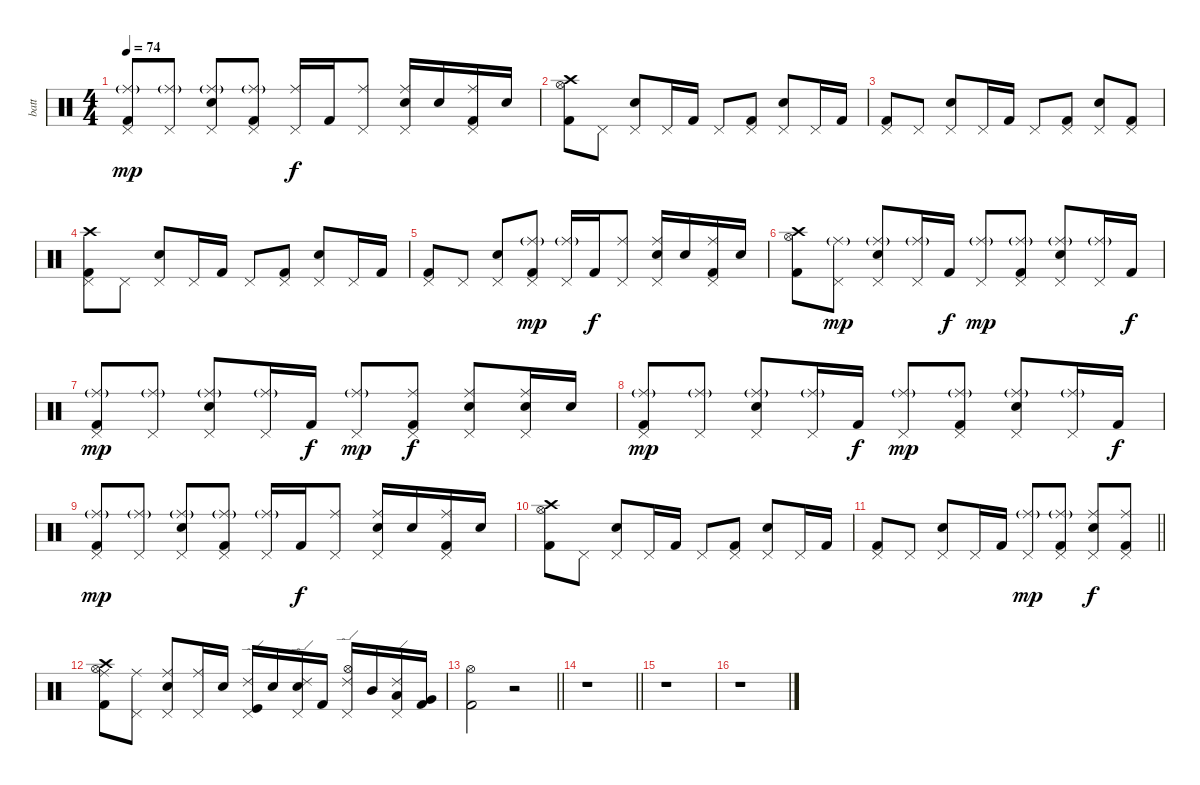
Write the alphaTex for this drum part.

\track ("batt" "batt") {instrument percussion}
\staff {score}
\articulation defaults
\ts (4 4)
\tempo 74
\clef neutral
\ks c
("Pedal Hi-Hat (hit)" "Ride (middle)"{g} "Kick (hit) 2").8{dy mp} ("Pedal Hi-Hat (hit)" "Ride (middle)"{g}).8 ("Pedal Hi-Hat (hit)" "Ride (middle)"{g} "Electric Snare (hit)").8 ("Pedal Hi-Hat (hit)" "Ride (middle)"{g} "Kick (hit) 2").8 ("Pedal Hi-Hat (hit)" "Ride (middle)").16{dy f} "Kick (hit) 2".16 ("Pedal Hi-Hat (hit)" "Ride (middle)").8 ("Pedal Hi-Hat (hit)" "Ride (middle)" "Electric Snare (hit)").16 "Electric Snare (hit)".16 ("Pedal Hi-Hat (hit)" "Ride (middle)" "Kick (hit) 2").16 "Electric Snare (hit)".16 |
("Crash high (hit)" "Hi-Hat (open)" "Kick (hit) 2").8 "Pedal Hi-Hat (hit)".8 ("Pedal Hi-Hat (hit)" "Electric Snare (hit)").8 "Pedal Hi-Hat (hit)".16 "Kick (hit) 2".16 "Pedal Hi-Hat (hit)".8 ("Pedal Hi-Hat (hit)" "Kick (hit) 2").8 ("Pedal Hi-Hat (hit)" "Electric Snare (hit)").8 "Pedal Hi-Hat (hit)".16 "Kick (hit) 2".16 |
("Pedal Hi-Hat (hit)" "Kick (hit) 2").8 "Pedal Hi-Hat (hit)".8 ("Pedal Hi-Hat (hit)" "Electric Snare (hit)").8 "Pedal Hi-Hat (hit)".16 "Kick (hit) 2".16 "Pedal Hi-Hat (hit)".8 ("Pedal Hi-Hat (hit)" "Kick (hit) 2").8 ("Pedal Hi-Hat (hit)" "Electric Snare (hit)").8 ("Pedal Hi-Hat (hit)" "Kick (hit) 2").8 |
("Pedal Hi-Hat (hit)" "Crash high (hit)" "Kick (hit) 2").8 "Pedal Hi-Hat (hit)".8 ("Pedal Hi-Hat (hit)" "Electric Snare (hit)").8 "Pedal Hi-Hat (hit)".16 "Kick (hit) 2".16 "Pedal Hi-Hat (hit)".8 ("Pedal Hi-Hat (hit)" "Kick (hit) 2").8 ("Pedal Hi-Hat (hit)" "Electric Snare (hit)").8 "Pedal Hi-Hat (hit)".16 "Kick (hit) 2".16 |
("Pedal Hi-Hat (hit)" "Kick (hit) 2").8 "Pedal Hi-Hat (hit)".8 ("Pedal Hi-Hat (hit)" "Electric Snare (hit)").8 ("Pedal Hi-Hat (hit)" "Ride (middle)"{g} "Kick (hit) 2").8{dy mp} ("Pedal Hi-Hat (hit)" "Ride (middle)"{g}).16 "Kick (hit) 2".16{dy f} ("Pedal Hi-Hat (hit)" "Ride (middle)").8 ("Pedal Hi-Hat (hit)" "Ride (middle)" "Electric Snare (hit)").16 "Electric Snare (hit)".16 ("Pedal Hi-Hat (hit)" "Ride (middle)" "Kick (hit) 2").16 "Electric Snare (hit)".16 |
("Crash high (hit)" "Hi-Hat (open)" "Kick (hit) 2").8 ("Pedal Hi-Hat (hit)" "Ride (middle)"{g}).8{dy mp} ("Pedal Hi-Hat (hit)" "Ride (middle)"{g} "Electric Snare (hit)").8 ("Pedal Hi-Hat (hit)" "Ride (middle)"{g}).16 "Kick (hit) 2".16{dy f} ("Pedal Hi-Hat (hit)" "Ride (middle)"{g}).8{dy mp} ("Pedal Hi-Hat (hit)" "Ride (middle)"{g} "Kick (hit) 2").8 ("Pedal Hi-Hat (hit)" "Ride (middle)"{g} "Electric Snare (hit)").8 ("Pedal Hi-Hat (hit)" "Ride (middle)"{g}).16 "Kick (hit) 2".16{dy f} |
("Pedal Hi-Hat (hit)" "Ride (middle)"{g} "Kick (hit) 2").8{dy mp} ("Pedal Hi-Hat (hit)" "Ride (middle)"{g}).8 ("Pedal Hi-Hat (hit)" "Ride (middle)"{g} "Electric Snare (hit)").8 ("Pedal Hi-Hat (hit)" "Ride (middle)"{g}).16 "Kick (hit) 2".16{dy f} ("Pedal Hi-Hat (hit)" "Ride (middle)"{g}).8{dy mp} ("Pedal Hi-Hat (hit)" "Ride (middle)" "Kick (hit) 2").8{dy f} ("Pedal Hi-Hat (hit)" "Ride (middle)" "Electric Snare (hit)").8 ("Pedal Hi-Hat (hit)" "Ride (middle)" "Electric Snare (hit)").16 "Electric Snare (hit)".16 |
("Pedal Hi-Hat (hit)" "Ride (middle)"{g} "Kick (hit) 2").8{dy mp} ("Pedal Hi-Hat (hit)" "Ride (middle)"{g}).8 ("Pedal Hi-Hat (hit)" "Ride (middle)"{g} "Electric Snare (hit)").8 ("Pedal Hi-Hat (hit)" "Ride (middle)"{g}).16 "Kick (hit) 2".16{dy f} ("Pedal Hi-Hat (hit)" "Ride (middle)"{g}).8{dy mp} ("Pedal Hi-Hat (hit)" "Ride (middle)"{g} "Kick (hit) 2").8 ("Pedal Hi-Hat (hit)" "Ride (middle)"{g} "Electric Snare (hit)").8 ("Pedal Hi-Hat (hit)" "Ride (middle)"{g}).16 "Kick (hit) 2".16{dy f} |
("Pedal Hi-Hat (hit)" "Ride (middle)"{g} "Kick (hit) 2").8{dy mp} ("Pedal Hi-Hat (hit)" "Ride (middle)"{g}).8 ("Pedal Hi-Hat (hit)" "Ride (middle)"{g} "Electric Snare (hit)").8 ("Pedal Hi-Hat (hit)" "Ride (middle)"{g} "Kick (hit) 2").8 ("Pedal Hi-Hat (hit)" "Ride (middle)"{g}).16 "Kick (hit) 2".16{dy f} ("Pedal Hi-Hat (hit)" "Ride (middle)").8 ("Pedal Hi-Hat (hit)" "Ride (middle)" "Electric Snare (hit)").16 "Electric Snare (hit)".16 ("Pedal Hi-Hat (hit)" "Ride (middle)" "Kick (hit) 2").16 "Electric Snare (hit)".16 |
("Crash high (hit)" "Hi-Hat (open)" "Kick (hit) 2").8 "Pedal Hi-Hat (hit)".8 ("Pedal Hi-Hat (hit)" "Electric Snare (hit)").8 "Pedal Hi-Hat (hit)".16 "Kick (hit) 2".16 "Pedal Hi-Hat (hit)".8 ("Pedal Hi-Hat (hit)" "Kick (hit) 2").8 ("Pedal Hi-Hat (hit)" "Electric Snare (hit)").8 "Pedal Hi-Hat (hit)".16 "Kick (hit) 2".16 |
\barLineRight lightlight
("Pedal Hi-Hat (hit)" "Kick (hit) 2").8 "Pedal Hi-Hat (hit)".8 ("Pedal Hi-Hat (hit)" "Electric Snare (hit)").8 "Pedal Hi-Hat (hit)".16 "Kick (hit) 2".16 ("Pedal Hi-Hat (hit)" "Ride (middle)"{g}).8{dy mp} ("Pedal Hi-Hat (hit)" "Ride (middle)"{g} "Kick (hit) 2").8 ("Pedal Hi-Hat (hit)" "Ride (middle)" "Electric Snare (hit)").8{dy f} ("Pedal Hi-Hat (hit)" "Ride (middle)" "Kick (hit) 2").8 |
("Crash high (hit)" "Hi-Hat (open)" "Ride (middle)" "Kick (hit) 2").8 ("Pedal Hi-Hat (hit)" "Ride (middle)").8 ("Pedal Hi-Hat (hit)" "Ride (middle)" "Electric Snare (hit)").8 ("Pedal Hi-Hat (hit)" "Ride (middle)").16 "Electric Snare (hit)".16 ("Pedal Hi-Hat (hit)" "Ride (edge) 2" "Kick (hit)").16 "Electric Snare (hit)".16 ("Pedal Hi-Hat (hit)" "Ride (edge) 2" "Electric Snare (hit)").16 "Kick (hit) 2".16 ("Pedal Hi-Hat (hit)" "Ride (edge) 2" "Hi-Hat (open)").16 "Mid Tom (hit)".16 ("Pedal Hi-Hat (hit)" "Ride (edge) 2" "Low Tom (hit)").16 ("Very Low Tom (hit)" "Kick (hit) 2").16 |
\barLineRight lightlight
("Hi-Hat (open)" "Kick (hit) 2").2 r.2 |
\barLineRight lightlight
r.1 |
r.1 |
r.1
